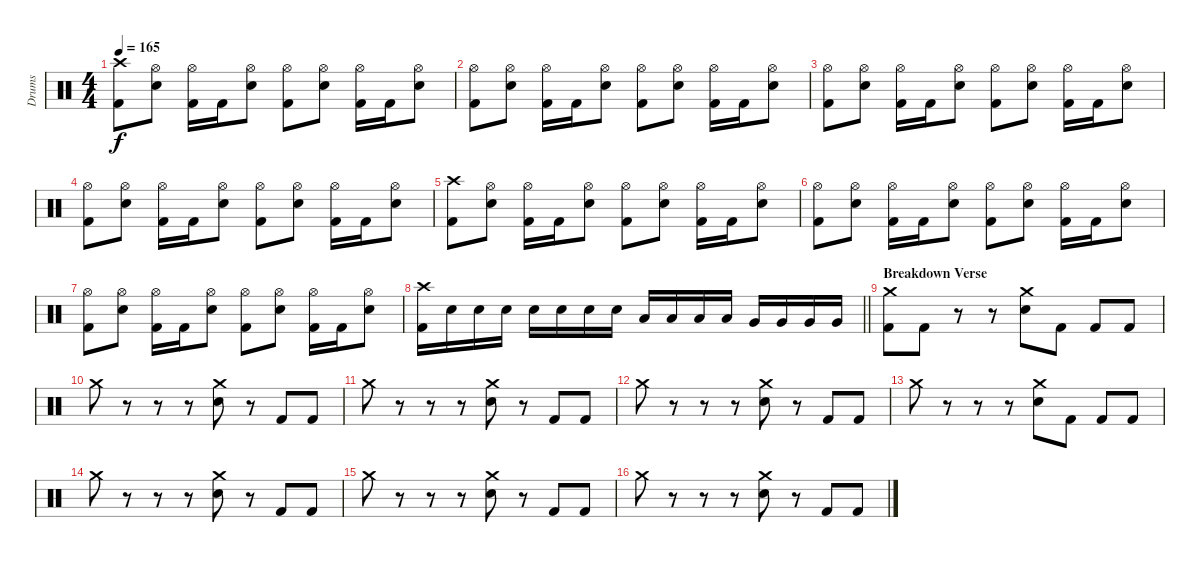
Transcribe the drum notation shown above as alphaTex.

\track ("Drums" "Drums") {instrument percussion}
\staff {score}
\articulation defaults
\ts (4 4)
\tempo 165
\clef neutral
\ks c
("Crash high (hit)" "Kick (hit) 2").8{dy f} ("Hi-Hat (open)" "Electric Snare (hit)").8 ("Hi-Hat (open)" "Kick (hit) 2").16 "Kick (hit) 2".16 ("Hi-Hat (open)" "Electric Snare (hit)").8 ("Hi-Hat (open)" "Kick (hit) 2").8 ("Hi-Hat (open)" "Electric Snare (hit)").8 ("Hi-Hat (open)" "Kick (hit) 2").16 "Kick (hit) 2".16 ("Hi-Hat (open)" "Electric Snare (hit)").8 |
("Hi-Hat (open)" "Kick (hit) 2").8 ("Hi-Hat (open)" "Electric Snare (hit)").8 ("Hi-Hat (open)" "Kick (hit) 2").16 "Kick (hit) 2".16 ("Hi-Hat (open)" "Electric Snare (hit)").8 ("Hi-Hat (open)" "Kick (hit) 2").8 ("Hi-Hat (open)" "Electric Snare (hit)").8 ("Hi-Hat (open)" "Kick (hit) 2").16 "Kick (hit) 2".16 ("Hi-Hat (open)" "Electric Snare (hit)").8 |
("Hi-Hat (open)" "Kick (hit) 2").8 ("Hi-Hat (open)" "Electric Snare (hit)").8 ("Hi-Hat (open)" "Kick (hit) 2").16 "Kick (hit) 2".16 ("Hi-Hat (open)" "Electric Snare (hit)").8 ("Hi-Hat (open)" "Kick (hit) 2").8 ("Hi-Hat (open)" "Electric Snare (hit)").8 ("Hi-Hat (open)" "Kick (hit) 2").16 "Kick (hit) 2".16 ("Hi-Hat (open)" "Electric Snare (hit)").8 |
("Hi-Hat (open)" "Kick (hit) 2").8 ("Hi-Hat (open)" "Electric Snare (hit)").8 ("Hi-Hat (open)" "Kick (hit) 2").16 "Kick (hit) 2".16 ("Hi-Hat (open)" "Electric Snare (hit)").8 ("Hi-Hat (open)" "Kick (hit) 2").8 ("Hi-Hat (open)" "Electric Snare (hit)").8 ("Hi-Hat (open)" "Kick (hit) 2").16 "Kick (hit) 2".16 ("Hi-Hat (open)" "Electric Snare (hit)").8 |
("Crash high (hit)" "Kick (hit) 2").8 ("Hi-Hat (open)" "Electric Snare (hit)").8 ("Hi-Hat (open)" "Kick (hit) 2").16 "Kick (hit) 2".16 ("Hi-Hat (open)" "Electric Snare (hit)").8 ("Hi-Hat (open)" "Kick (hit) 2").8 ("Hi-Hat (open)" "Electric Snare (hit)").8 ("Hi-Hat (open)" "Kick (hit) 2").16 "Kick (hit) 2".16 ("Hi-Hat (open)" "Electric Snare (hit)").8 |
("Hi-Hat (open)" "Kick (hit) 2").8 ("Hi-Hat (open)" "Electric Snare (hit)").8 ("Hi-Hat (open)" "Kick (hit) 2").16 "Kick (hit) 2".16 ("Hi-Hat (open)" "Electric Snare (hit)").8 ("Hi-Hat (open)" "Kick (hit) 2").8 ("Hi-Hat (open)" "Electric Snare (hit)").8 ("Hi-Hat (open)" "Kick (hit) 2").16 "Kick (hit) 2".16 ("Hi-Hat (open)" "Electric Snare (hit)").8 |
("Hi-Hat (open)" "Kick (hit) 2").8 ("Hi-Hat (open)" "Electric Snare (hit)").8 ("Hi-Hat (open)" "Kick (hit) 2").16 "Kick (hit) 2".16 ("Hi-Hat (open)" "Electric Snare (hit)").8 ("Hi-Hat (open)" "Kick (hit) 2").8 ("Hi-Hat (open)" "Electric Snare (hit)").8 ("Hi-Hat (open)" "Kick (hit) 2").16 "Kick (hit) 2".16 ("Hi-Hat (open)" "Electric Snare (hit)").8 |
\barLineRight lightlight
("Crash high (hit)" "Kick (hit) 2").16 "Electric Snare (hit)".16 "Electric Snare (hit)".16 "Electric Snare (hit)".16 "Electric Snare (hit)".16 "Electric Snare (hit)".16 "Electric Snare (hit)".16 "Electric Snare (hit)".16 "Low Tom (hit)".16 "Low Tom (hit)".16 "Low Tom (hit)".16 "Low Tom (hit)".16 "Very Low Tom (hit)".16 "Very Low Tom (hit)".16 "Very Low Tom (hit)".16 "Very Low Tom (hit)".16 |
\section ("" "Breakdown Verse")
("Crash medium (hit)" "Kick (hit) 2").8 "Kick (hit) 2".8 r.8 r.8 ("Crash medium (hit)" "Electric Snare (hit)").8 "Kick (hit) 2".8 "Kick (hit) 2".8 "Kick (hit) 2".8 |
"Crash medium (hit)".8 r.8 r.8 r.8 ("Crash medium (hit)" "Electric Snare (hit)").8 r.8 "Kick (hit) 2".8 "Kick (hit) 2".8 |
"Crash medium (hit)".8 r.8 r.8 r.8 ("Crash medium (hit)" "Electric Snare (hit)").8 r.8 "Kick (hit) 2".8 "Kick (hit) 2".8 |
"Crash medium (hit)".8 r.8 r.8 r.8 ("Crash medium (hit)" "Electric Snare (hit)").8 r.8 "Kick (hit) 2".8 "Kick (hit) 2".8 |
"Crash medium (hit)".8 r.8 r.8 r.8 ("Crash medium (hit)" "Electric Snare (hit)").8 "Kick (hit) 2".8 "Kick (hit) 2".8 "Kick (hit) 2".8 |
"Crash medium (hit)".8 r.8 r.8 r.8 ("Crash medium (hit)" "Electric Snare (hit)").8 r.8 "Kick (hit) 2".8 "Kick (hit) 2".8 |
"Crash medium (hit)".8 r.8 r.8 r.8 ("Crash medium (hit)" "Electric Snare (hit)").8 r.8 "Kick (hit) 2".8 "Kick (hit) 2".8 |
"Crash medium (hit)".8 r.8 r.8 r.8 ("Crash medium (hit)" "Electric Snare (hit)").8 r.8 "Kick (hit) 2".8 "Kick (hit) 2".8
